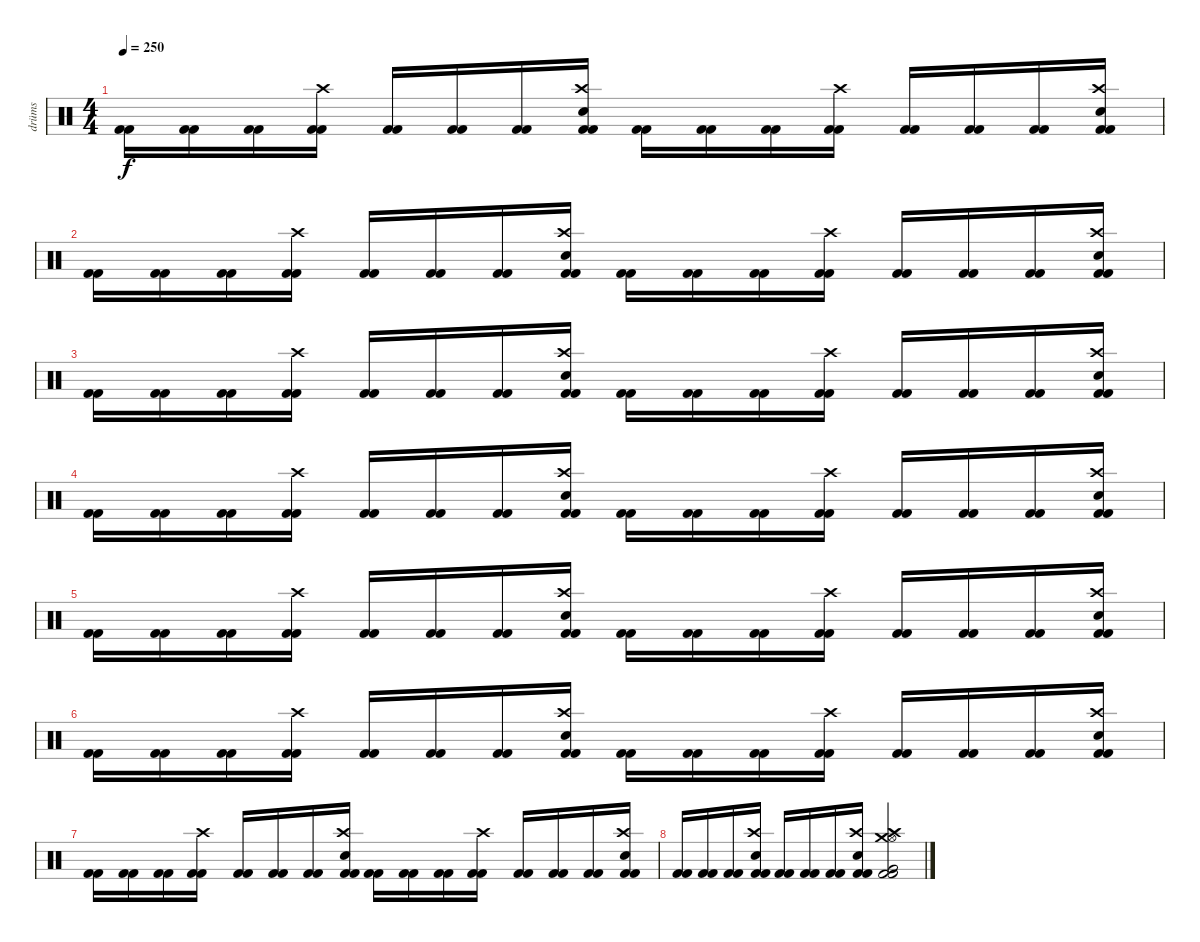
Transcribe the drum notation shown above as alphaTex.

\track ("drüms" "drüms") {instrument percussion}
\staff {score}
\articulation defaults
\ts (4 4)
\tempo 250
\clef neutral
\ks c
("Kick (hit) 2" "Kick (hit) 2").16{dy f} ("Kick (hit) 2" "Kick (hit) 2").16 ("Kick (hit) 2" "Kick (hit) 2").16 ("Crash high (hit)" "Kick (hit) 2" "Kick (hit) 2").16 ("Kick (hit) 2" "Kick (hit) 2").16 ("Kick (hit) 2" "Kick (hit) 2").16 ("Kick (hit) 2" "Kick (hit) 2").16 ("Electric Snare (hit)" "Crash high (hit)" "Kick (hit) 2" "Kick (hit) 2").16 ("Kick (hit) 2" "Kick (hit) 2").16 ("Kick (hit) 2" "Kick (hit) 2").16 ("Kick (hit) 2" "Kick (hit) 2").16 ("Crash high (hit)" "Kick (hit) 2" "Kick (hit) 2").16 ("Kick (hit) 2" "Kick (hit) 2").16 ("Kick (hit) 2" "Kick (hit) 2").16 ("Kick (hit) 2" "Kick (hit) 2").16 ("Electric Snare (hit)" "Crash high (hit)" "Kick (hit) 2" "Kick (hit) 2").16 |
("Kick (hit) 2" "Kick (hit) 2").16 ("Kick (hit) 2" "Kick (hit) 2").16 ("Kick (hit) 2" "Kick (hit) 2").16 ("Crash high (hit)" "Kick (hit) 2" "Kick (hit) 2").16 ("Kick (hit) 2" "Kick (hit) 2").16 ("Kick (hit) 2" "Kick (hit) 2").16 ("Kick (hit) 2" "Kick (hit) 2").16 ("Electric Snare (hit)" "Crash high (hit)" "Kick (hit) 2" "Kick (hit) 2").16 ("Kick (hit) 2" "Kick (hit) 2").16 ("Kick (hit) 2" "Kick (hit) 2").16 ("Kick (hit) 2" "Kick (hit) 2").16 ("Crash high (hit)" "Kick (hit) 2" "Kick (hit) 2").16 ("Kick (hit) 2" "Kick (hit) 2").16 ("Kick (hit) 2" "Kick (hit) 2").16 ("Kick (hit) 2" "Kick (hit) 2").16 ("Electric Snare (hit)" "Crash high (hit)" "Kick (hit) 2" "Kick (hit) 2").16 |
("Kick (hit) 2" "Kick (hit) 2").16 ("Kick (hit) 2" "Kick (hit) 2").16 ("Kick (hit) 2" "Kick (hit) 2").16 ("Crash high (hit)" "Kick (hit) 2" "Kick (hit) 2").16 ("Kick (hit) 2" "Kick (hit) 2").16 ("Kick (hit) 2" "Kick (hit) 2").16 ("Kick (hit) 2" "Kick (hit) 2").16 ("Electric Snare (hit)" "Crash high (hit)" "Kick (hit) 2" "Kick (hit) 2").16 ("Kick (hit) 2" "Kick (hit) 2").16 ("Kick (hit) 2" "Kick (hit) 2").16 ("Kick (hit) 2" "Kick (hit) 2").16 ("Crash high (hit)" "Kick (hit) 2" "Kick (hit) 2").16 ("Kick (hit) 2" "Kick (hit) 2").16 ("Kick (hit) 2" "Kick (hit) 2").16 ("Kick (hit) 2" "Kick (hit) 2").16 ("Electric Snare (hit)" "Crash high (hit)" "Kick (hit) 2" "Kick (hit) 2").16 |
("Kick (hit) 2" "Kick (hit) 2").16 ("Kick (hit) 2" "Kick (hit) 2").16 ("Kick (hit) 2" "Kick (hit) 2").16 ("Crash high (hit)" "Kick (hit) 2" "Kick (hit) 2").16 ("Kick (hit) 2" "Kick (hit) 2").16 ("Kick (hit) 2" "Kick (hit) 2").16 ("Kick (hit) 2" "Kick (hit) 2").16 ("Electric Snare (hit)" "Crash high (hit)" "Kick (hit) 2" "Kick (hit) 2").16 ("Kick (hit) 2" "Kick (hit) 2").16 ("Kick (hit) 2" "Kick (hit) 2").16 ("Kick (hit) 2" "Kick (hit) 2").16 ("Crash high (hit)" "Kick (hit) 2" "Kick (hit) 2").16 ("Kick (hit) 2" "Kick (hit) 2").16 ("Kick (hit) 2" "Kick (hit) 2").16 ("Kick (hit) 2" "Kick (hit) 2").16 ("Electric Snare (hit)" "Crash high (hit)" "Kick (hit) 2" "Kick (hit) 2").16 |
("Kick (hit) 2" "Kick (hit) 2").16 ("Kick (hit) 2" "Kick (hit) 2").16 ("Kick (hit) 2" "Kick (hit) 2").16 ("Crash high (hit)" "Kick (hit) 2" "Kick (hit) 2").16 ("Kick (hit) 2" "Kick (hit) 2").16 ("Kick (hit) 2" "Kick (hit) 2").16 ("Kick (hit) 2" "Kick (hit) 2").16 ("Electric Snare (hit)" "Crash high (hit)" "Kick (hit) 2" "Kick (hit) 2").16 ("Kick (hit) 2" "Kick (hit) 2").16 ("Kick (hit) 2" "Kick (hit) 2").16 ("Kick (hit) 2" "Kick (hit) 2").16 ("Crash high (hit)" "Kick (hit) 2" "Kick (hit) 2").16 ("Kick (hit) 2" "Kick (hit) 2").16 ("Kick (hit) 2" "Kick (hit) 2").16 ("Kick (hit) 2" "Kick (hit) 2").16 ("Electric Snare (hit)" "Crash high (hit)" "Kick (hit) 2" "Kick (hit) 2").16 |
("Kick (hit) 2" "Kick (hit) 2").16 ("Kick (hit) 2" "Kick (hit) 2").16 ("Kick (hit) 2" "Kick (hit) 2").16 ("Crash high (hit)" "Kick (hit) 2" "Kick (hit) 2").16 ("Kick (hit) 2" "Kick (hit) 2").16 ("Kick (hit) 2" "Kick (hit) 2").16 ("Kick (hit) 2" "Kick (hit) 2").16 ("Electric Snare (hit)" "Crash high (hit)" "Kick (hit) 2" "Kick (hit) 2").16 ("Kick (hit) 2" "Kick (hit) 2").16 ("Kick (hit) 2" "Kick (hit) 2").16 ("Kick (hit) 2" "Kick (hit) 2").16 ("Crash high (hit)" "Kick (hit) 2" "Kick (hit) 2").16 ("Kick (hit) 2" "Kick (hit) 2").16 ("Kick (hit) 2" "Kick (hit) 2").16 ("Kick (hit) 2" "Kick (hit) 2").16 ("Electric Snare (hit)" "Crash high (hit)" "Kick (hit) 2" "Kick (hit) 2").16 |
("Kick (hit) 2" "Kick (hit) 2").16 ("Kick (hit) 2" "Kick (hit) 2").16 ("Kick (hit) 2" "Kick (hit) 2").16 ("Crash high (hit)" "Kick (hit) 2" "Kick (hit) 2").16 ("Kick (hit) 2" "Kick (hit) 2").16 ("Kick (hit) 2" "Kick (hit) 2").16 ("Kick (hit) 2" "Kick (hit) 2").16 ("Electric Snare (hit)" "Crash high (hit)" "Kick (hit) 2" "Kick (hit) 2").16 ("Kick (hit) 2" "Kick (hit) 2").16 ("Kick (hit) 2" "Kick (hit) 2").16 ("Kick (hit) 2" "Kick (hit) 2").16 ("Crash high (hit)" "Kick (hit) 2" "Kick (hit) 2").16 ("Kick (hit) 2" "Kick (hit) 2").16 ("Kick (hit) 2" "Kick (hit) 2").16 ("Kick (hit) 2" "Kick (hit) 2").16 ("Electric Snare (hit)" "Crash high (hit)" "Kick (hit) 2" "Kick (hit) 2").16 |
("Kick (hit) 2" "Kick (hit) 2").16 ("Kick (hit) 2" "Kick (hit) 2").16 ("Kick (hit) 2" "Kick (hit) 2").16 ("Electric Snare (hit)" "Crash high (hit)" "Kick (hit) 2" "Kick (hit) 2").16 ("Kick (hit) 2" "Kick (hit) 2").16 ("Kick (hit) 2" "Kick (hit) 2").16 ("Kick (hit) 2" "Kick (hit) 2").16 ("Electric Snare (hit)" "Crash high (hit)" "Kick (hit) 2" "Kick (hit) 2").16 ("Crash medium (hit)" "Crash high (hit)" "Hi-Hat (open)" "Very Low Tom (hit)" "Kick (hit) 2" "Kick (hit) 2").2
